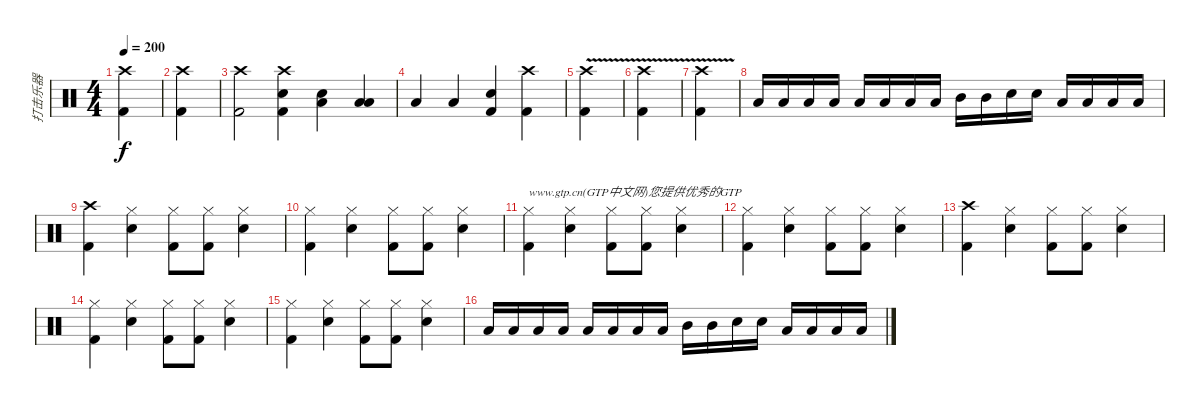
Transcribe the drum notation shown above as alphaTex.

\track ("打击乐器" "打击乐器") {instrument percussion}
\staff {score}
\articulation defaults
\ts (4 4)
\tempo 200
\clef neutral
\ks c
("Crash high (hit)" "Kick (hit) 2").4{dy f} |
("Crash high (hit)" "Kick (hit) 2").4 |
("Crash high (hit)" "Kick (hit) 2").2 ("Crash high (hit)" "Kick (hit) 2" "Snare (hit) 2").4 ("Low Floor Tom (hit)" "Snare (hit) 2").4 ("Low Tom (hit)" "Low Floor Tom (hit)").4 |
"Low Tom (hit)".4 "Low Floor Tom (hit)".4 ("Kick (hit) 2" "Snare (hit) 2").4 ("Kick (hit) 2" "Crash high (hit)").4 |
("Crash high (hit)"{v} "Kick (hit) 2").4 |
("Crash high (hit)"{v} "Kick (hit) 2").4 |
("Crash high (hit)"{v} "Kick (hit) 2").4 |
"Low Floor Tom (hit)".16 "Low Floor Tom (hit)".16 "Low Floor Tom (hit)".16 "Low Floor Tom (hit)".16 "Low Floor Tom (hit)".16 "Low Floor Tom (hit)".16 "Low Floor Tom (hit)".16 "Low Floor Tom (hit)".16 "Mid Tom (hit)".16 "Mid Tom (hit)".16 "Snare (hit) 2".16 "Snare (hit) 2".16 "Low Floor Tom (hit)".16 "Low Floor Tom (hit)".16 "Low Tom (hit)".16 "Low Tom (hit)".16 |
("Crash high (hit)" "Kick (hit) 2").4 ("Hi-Hat (closed)" "Snare (hit) 2").4 ("Hi-Hat (closed)" "Kick (hit) 2").8 ("Hi-Hat (closed)" "Kick (hit) 2").8 ("Hi-Hat (closed)" "Snare (hit) 2").4 |
("Hi-Hat (closed)" "Kick (hit) 2").4 ("Hi-Hat (closed)" "Snare (hit) 2").4 ("Hi-Hat (closed)" "Kick (hit) 2").8 ("Hi-Hat (closed)" "Kick (hit) 2").8 ("Hi-Hat (closed)" "Snare (hit) 2").4 |
("Hi-Hat (closed)" "Kick (hit) 2").4{txt "www.gtp.cn(GTP中文网)您提供优秀的GTP"} ("Hi-Hat (closed)" "Snare (hit) 2").4 ("Hi-Hat (closed)" "Kick (hit) 2").8 ("Hi-Hat (closed)" "Kick (hit) 2").8 ("Hi-Hat (closed)" "Snare (hit) 2").4 |
("Hi-Hat (closed)" "Kick (hit) 2").4 ("Hi-Hat (closed)" "Snare (hit) 2").4 ("Hi-Hat (closed)" "Kick (hit) 2").8 ("Hi-Hat (closed)" "Kick (hit) 2").8 ("Hi-Hat (closed)" "Snare (hit) 2").4 |
("Crash high (hit)" "Kick (hit) 2").4 ("Hi-Hat (closed)" "Snare (hit) 2").4 ("Hi-Hat (closed)" "Kick (hit) 2").8 ("Hi-Hat (closed)" "Kick (hit) 2").8 ("Hi-Hat (closed)" "Snare (hit) 2").4 |
("Hi-Hat (closed)" "Kick (hit) 2").4 ("Hi-Hat (closed)" "Snare (hit) 2").4 ("Hi-Hat (closed)" "Kick (hit) 2").8 ("Hi-Hat (closed)" "Kick (hit) 2").8 ("Hi-Hat (closed)" "Snare (hit) 2").4 |
("Hi-Hat (closed)" "Kick (hit) 2").4 ("Hi-Hat (closed)" "Snare (hit) 2").4 ("Hi-Hat (closed)" "Kick (hit) 2").8 ("Hi-Hat (closed)" "Kick (hit) 2").8 ("Hi-Hat (closed)" "Snare (hit) 2").4 |
"Low Floor Tom (hit)".16 "Low Floor Tom (hit)".16 "Low Floor Tom (hit)".16 "Low Floor Tom (hit)".16 "Low Floor Tom (hit)".16 "Low Floor Tom (hit)".16 "Low Floor Tom (hit)".16 "Low Floor Tom (hit)".16 "Mid Tom (hit)".16 "Mid Tom (hit)".16 "Snare (hit) 2".16 "Snare (hit) 2".16 "Low Floor Tom (hit)".16 "Low Floor Tom (hit)".16 "Low Tom (hit)".16 "Low Tom (hit)".16
